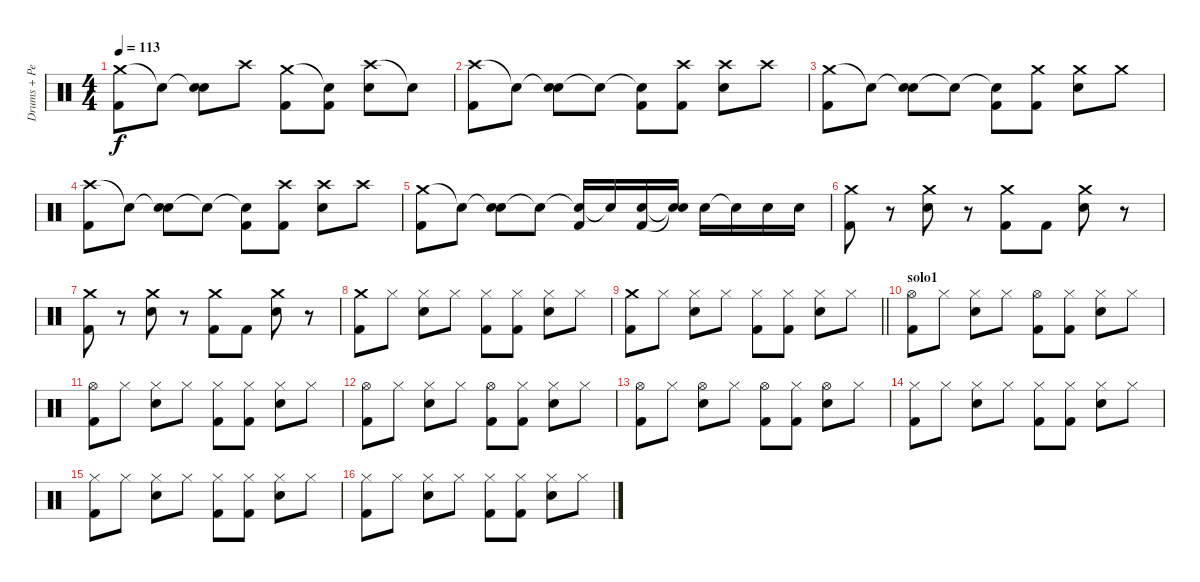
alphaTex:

\track ("Drums + Percussion" "Drums + Pe") {instrument percussion}
\staff {score}
\articulation defaults
\ts (4 4)
\tempo 113
\clef neutral
\ks c
("Crash medium (hit)" "Kick (hit) 2").8{dy f} "Snare (hit)"{t}.8 ("Snare (hit)"{t} "Snare (hit) 2").8 "Crash high (hit)".8 ("Crash medium (hit)" "Kick (hit) 2").8 ("Snare (hit)"{t} "Kick (hit) 2").8 ("Crash high (hit)" "Snare (hit) 2").8 "Snare (hit)"{t}.8 |
("Crash high (hit)" "Kick (hit) 2").8 "Snare (hit)"{t}.8 ("Snare (hit)"{t} "Snare (hit) 2").8 "Snare (hit)"{t}.8 ("Snare (hit)"{t} "Kick (hit) 2").8 ("Crash high (hit)" "Kick (hit) 2").8 ("Crash high (hit)" "Snare (hit) 2").8 "Crash high (hit)".8 |
("Crash medium (hit)" "Kick (hit) 2").8 "Snare (hit)"{t}.8 ("Snare (hit)"{t} "Snare (hit) 2").8 "Snare (hit)"{t}.8 ("Snare (hit)"{t} "Kick (hit) 2").8 ("Crash medium (hit)" "Kick (hit) 2").8 ("Crash medium (hit)" "Snare (hit) 2").8 "Crash medium (hit)".8 |
("Crash high (hit)" "Kick (hit) 2").8 "Snare (hit)"{t}.8 ("Snare (hit)"{t} "Snare (hit) 2").8 "Snare (hit)"{t}.8 ("Snare (hit)"{t} "Kick (hit) 2").8 ("Crash high (hit)" "Kick (hit) 2").8 ("Crash high (hit)" "Snare (hit) 2").8 "Crash high (hit)".8 |
("Crash medium (hit)" "Kick (hit) 2").8 "Snare (hit)"{t}.8 ("Snare (hit)"{t} "Snare (hit) 2").8 "Snare (hit)"{t}.8 ("Snare (hit)"{t} "Kick (hit) 2").16 "Snare (hit)"{t}.16 ("Snare (hit) 2" "Kick (hit) 2").16 ("Snare (hit)"{t} "Snare (hit)"{t}).16 "Snare (hit) 2".16 "Snare (hit) 2"{t}.16 "Snare (hit) 2".16 "Snare (hit) 2".16 |
("Crash medium (hit)" "Kick (hit) 2").8 r.8 ("Crash medium (hit)" "Snare (hit) 2").8 r.8 ("Crash medium (hit)" "Kick (hit) 2").8 "Kick (hit) 2".8 ("Crash medium (hit)" "Snare (hit) 2").8 r.8 |
("Crash medium (hit)" "Kick (hit) 2").8 r.8 ("Crash medium (hit)" "Snare (hit) 2").8 r.8 ("Crash medium (hit)" "Kick (hit) 2").8 "Kick (hit) 2".8 ("Crash medium (hit)" "Snare (hit) 2").8 r.8 |
("Crash medium (hit)" "Kick (hit) 2").8 "Hi-Hat (closed)".8 ("Hi-Hat (closed)" "Snare (hit) 2").8 "Hi-Hat (closed)".8 ("Hi-Hat (closed)" "Kick (hit) 2").8 ("Hi-Hat (closed)" "Kick (hit) 2").8 ("Hi-Hat (closed)" "Snare (hit) 2").8 "Hi-Hat (closed)".8 |
\barLineRight lightlight
("Crash medium (hit)" "Kick (hit) 2").8 "Hi-Hat (closed)".8 ("Hi-Hat (closed)" "Snare (hit) 2").8 "Hi-Hat (closed)".8 ("Hi-Hat (closed)" "Kick (hit) 2").8 ("Hi-Hat (closed)" "Kick (hit) 2").8 ("Hi-Hat (closed)" "Snare (hit) 2").8 "Hi-Hat (closed)".8 |
\section ("" "solo1")
("Hi-Hat (open)" "Kick (hit) 2").8 "Hi-Hat (closed)".8 ("Hi-Hat (closed)" "Snare (hit) 2").8 "Hi-Hat (closed)".8 ("Hi-Hat (open)" "Kick (hit) 2").8 ("Hi-Hat (closed)" "Kick (hit) 2").8 ("Hi-Hat (closed)" "Snare (hit) 2").8 "Hi-Hat (closed)".8 |
("Hi-Hat (open)" "Kick (hit) 2").8 "Hi-Hat (closed)".8 ("Hi-Hat (closed)" "Snare (hit) 2").8 "Hi-Hat (closed)".8 ("Hi-Hat (closed)" "Kick (hit) 2").8 ("Hi-Hat (closed)" "Kick (hit) 2").8 ("Hi-Hat (closed)" "Snare (hit) 2").8 "Hi-Hat (closed)".8 |
("Hi-Hat (open)" "Kick (hit) 2").8 "Hi-Hat (closed)".8 ("Hi-Hat (closed)" "Snare (hit) 2").8 "Hi-Hat (closed)".8 ("Hi-Hat (open)" "Kick (hit) 2").8 ("Hi-Hat (closed)" "Kick (hit) 2").8 ("Hi-Hat (closed)" "Snare (hit) 2").8 "Hi-Hat (closed)".8 |
("Hi-Hat (open)" "Kick (hit) 2").8 "Hi-Hat (closed)".8 ("Hi-Hat (open)" "Snare (hit) 2").8 "Hi-Hat (closed)".8 ("Hi-Hat (open)" "Kick (hit) 2").8 ("Hi-Hat (closed)" "Kick (hit) 2").8 ("Hi-Hat (open)" "Snare (hit) 2").8 "Hi-Hat (closed)".8 |
("Hi-Hat (closed)" "Kick (hit) 2").8 "Hi-Hat (closed)".8 ("Hi-Hat (closed)" "Snare (hit) 2").8 "Hi-Hat (closed)".8 ("Hi-Hat (closed)" "Kick (hit) 2").8 ("Hi-Hat (closed)" "Kick (hit) 2").8 ("Hi-Hat (closed)" "Snare (hit) 2").8 "Hi-Hat (closed)".8 |
("Hi-Hat (closed)" "Kick (hit) 2").8 "Hi-Hat (closed)".8 ("Hi-Hat (closed)" "Snare (hit) 2").8 "Hi-Hat (closed)".8 ("Hi-Hat (closed)" "Kick (hit) 2").8 ("Hi-Hat (closed)" "Kick (hit) 2").8 ("Hi-Hat (closed)" "Snare (hit) 2").8 "Hi-Hat (closed)".8 |
("Hi-Hat (closed)" "Kick (hit) 2").8 "Hi-Hat (closed)".8 ("Hi-Hat (closed)" "Snare (hit) 2").8 "Hi-Hat (closed)".8 ("Hi-Hat (closed)" "Kick (hit) 2").8 ("Hi-Hat (closed)" "Kick (hit) 2").8 ("Hi-Hat (closed)" "Snare (hit) 2").8 "Hi-Hat (closed)".8
